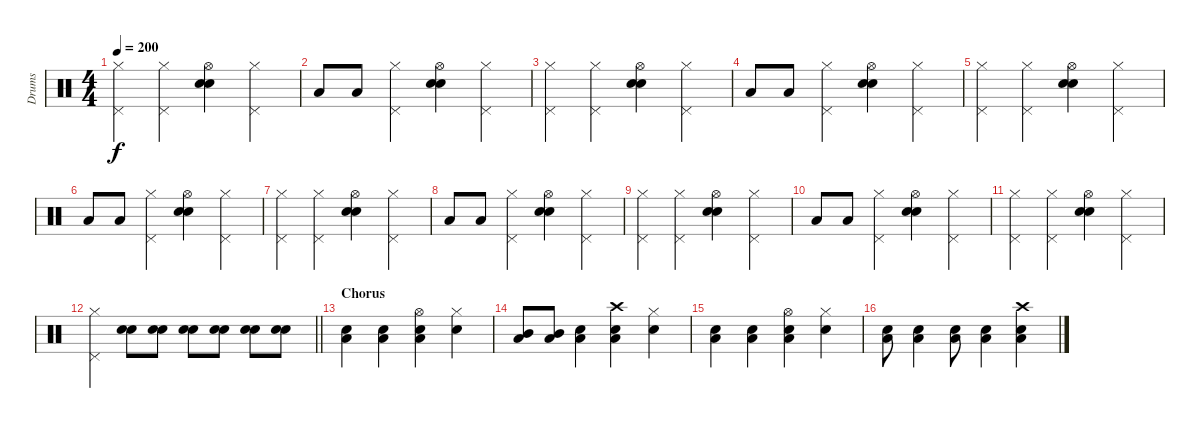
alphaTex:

\track ("Drums" "Drums") {instrument percussion}
\staff {score}
\articulation defaults
\ts (4 4)
\tempo 200
\clef neutral
\ks c
("Hi-Hat (closed)" "Pedal Hi-Hat (hit)").4{dy f} ("Hi-Hat (closed)" "Pedal Hi-Hat (hit)").4 ("Snare (hit) 2" "Electric Snare (hit)" "Hi-Hat (open)").4 ("Hi-Hat (closed)" "Pedal Hi-Hat (hit)").4 |
"Low Tom (hit)".8 "Low Tom (hit)".8 ("Hi-Hat (closed)" "Pedal Hi-Hat (hit)").4 ("Snare (hit) 2" "Electric Snare (hit)" "Hi-Hat (open)").4 ("Hi-Hat (closed)" "Pedal Hi-Hat (hit)").4 |
("Hi-Hat (closed)" "Pedal Hi-Hat (hit)").4 ("Hi-Hat (closed)" "Pedal Hi-Hat (hit)").4 ("Snare (hit) 2" "Electric Snare (hit)" "Hi-Hat (open)").4 ("Hi-Hat (closed)" "Pedal Hi-Hat (hit)").4 |
"Low Tom (hit)".8 "Low Tom (hit)".8 ("Hi-Hat (closed)" "Pedal Hi-Hat (hit)").4 ("Snare (hit) 2" "Electric Snare (hit)" "Hi-Hat (open)").4 ("Hi-Hat (closed)" "Pedal Hi-Hat (hit)").4 |
("Hi-Hat (closed)" "Pedal Hi-Hat (hit)").4 ("Hi-Hat (closed)" "Pedal Hi-Hat (hit)").4 ("Snare (hit) 2" "Electric Snare (hit)" "Hi-Hat (open)").4 ("Hi-Hat (closed)" "Pedal Hi-Hat (hit)").4 |
"Low Tom (hit)".8 "Low Tom (hit)".8 ("Hi-Hat (closed)" "Pedal Hi-Hat (hit)").4 ("Snare (hit) 2" "Electric Snare (hit)" "Hi-Hat (open)").4 ("Hi-Hat (closed)" "Pedal Hi-Hat (hit)").4 |
("Hi-Hat (closed)" "Pedal Hi-Hat (hit)").4 ("Hi-Hat (closed)" "Pedal Hi-Hat (hit)").4 ("Snare (hit) 2" "Electric Snare (hit)" "Hi-Hat (open)").4 ("Hi-Hat (closed)" "Pedal Hi-Hat (hit)").4 |
"Low Tom (hit)".8 "Low Tom (hit)".8 ("Hi-Hat (closed)" "Pedal Hi-Hat (hit)").4 ("Snare (hit) 2" "Electric Snare (hit)" "Hi-Hat (open)").4 ("Hi-Hat (closed)" "Pedal Hi-Hat (hit)").4 |
("Hi-Hat (closed)" "Pedal Hi-Hat (hit)").4 ("Hi-Hat (closed)" "Pedal Hi-Hat (hit)").4 ("Snare (hit) 2" "Electric Snare (hit)" "Hi-Hat (open)").4 ("Hi-Hat (closed)" "Pedal Hi-Hat (hit)").4 |
"Low Tom (hit)".8 "Low Tom (hit)".8 ("Hi-Hat (closed)" "Pedal Hi-Hat (hit)").4 ("Snare (hit) 2" "Electric Snare (hit)" "Hi-Hat (open)").4 ("Hi-Hat (closed)" "Pedal Hi-Hat (hit)").4 |
("Hi-Hat (closed)" "Pedal Hi-Hat (hit)").4 ("Hi-Hat (closed)" "Pedal Hi-Hat (hit)").4 ("Snare (hit) 2" "Electric Snare (hit)" "Hi-Hat (open)").4 ("Hi-Hat (closed)" "Pedal Hi-Hat (hit)").4 |
\barLineRight lightlight
("Hi-Hat (closed)" "Pedal Hi-Hat (hit)").4 ("Snare (hit) 2" "Electric Snare (hit)").8 ("Snare (hit) 2" "Electric Snare (hit)").8 ("Snare (hit) 2" "Electric Snare (hit)").8 ("Snare (hit) 2" "Electric Snare (hit)").8 ("Snare (hit) 2" "Electric Snare (hit)").8 ("Snare (hit) 2" "Electric Snare (hit)").8 |
\section ("" "Chorus")
("Electric Snare (hit)" "Low Tom (hit)").4 ("Electric Snare (hit)" "Low Tom (hit)").4 ("Snare (hit) 2" "Low Tom (hit)" "Hi-Hat (open)").4 ("Electric Snare (hit)" "Hi-Hat (closed)").4 |
("Mid Tom (hit)" "Low Tom (hit)").8 ("Mid Tom (hit)" "Low Tom (hit)").8 ("Snare (hit) 2" "Low Tom (hit)").4 ("Electric Snare (hit)" "Low Tom (hit)" "Crash high (hit)").4 ("Electric Snare (hit)" "Hi-Hat (closed)").4 |
("Electric Snare (hit)" "Low Tom (hit)").4 ("Electric Snare (hit)" "Low Tom (hit)").4 ("Snare (hit) 2" "Low Tom (hit)" "Hi-Hat (open)").4 ("Electric Snare (hit)" "Hi-Hat (closed)").4 |
("Snare (hit) 2" "Low Tom (hit)").8 ("Snare (hit) 2" "Low Tom (hit)").4 ("Snare (hit) 2" "Low Tom (hit)").8 ("Snare (hit) 2" "Low Tom (hit)").4 ("Electric Snare (hit)" "Low Tom (hit)" "Crash high (hit)").4
